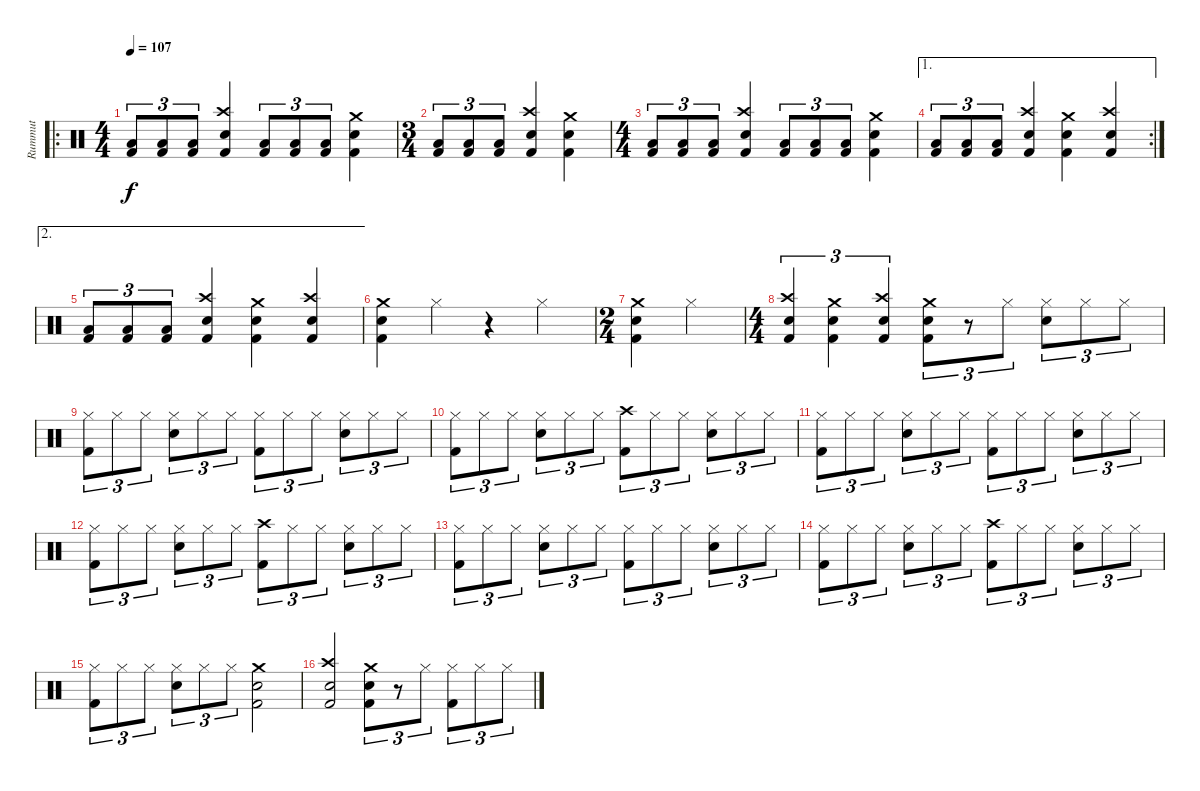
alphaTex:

\track ("Rummut" "Rummut") {instrument percussion}
\staff {score}
\articulation defaults
\ro
\ts (4 4)
\tempo 107
\clef neutral
\ks c
("Low Floor Tom (hit)" "Kick (hit) 2").8{tu (3 2) dy f} ("Low Floor Tom (hit)" "Kick (hit) 2").8{tu (3 2)} ("Low Floor Tom (hit)" "Kick (hit) 2").8{tu (3 2)} ("Crash high (hit)" "Snare (hit) 2" "Kick (hit) 2").4 ("Low Floor Tom (hit)" "Kick (hit) 2").8{tu (3 2)} ("Low Floor Tom (hit)" "Kick (hit) 2").8{tu (3 2)} ("Low Floor Tom (hit)" "Kick (hit) 2").8{tu (3 2)} ("Crash medium (hit)" "Snare (hit) 2" "Kick (hit) 2").4 |
\ts (3 4)
("Low Floor Tom (hit)" "Kick (hit) 2").8{tu (3 2)} ("Low Floor Tom (hit)" "Kick (hit) 2").8{tu (3 2)} ("Low Floor Tom (hit)" "Kick (hit) 2").8{tu (3 2)} ("Crash high (hit)" "Snare (hit) 2" "Kick (hit) 2").4 ("Crash medium (hit)" "Snare (hit) 2" "Kick (hit) 2").4 |
\ts (4 4)
("Low Floor Tom (hit)" "Kick (hit) 2").8{tu (3 2)} ("Low Floor Tom (hit)" "Kick (hit) 2").8{tu (3 2)} ("Low Floor Tom (hit)" "Kick (hit) 2").8{tu (3 2)} ("Crash high (hit)" "Snare (hit) 2" "Kick (hit) 2").4 ("Low Floor Tom (hit)" "Kick (hit) 2").8{tu (3 2)} ("Low Floor Tom (hit)" "Kick (hit) 2").8{tu (3 2)} ("Low Floor Tom (hit)" "Kick (hit) 2").8{tu (3 2)} ("Crash medium (hit)" "Snare (hit) 2" "Kick (hit) 2").4 |
\ae 1
\rc 2
("Low Floor Tom (hit)" "Kick (hit) 2").8{tu (3 2)} ("Low Floor Tom (hit)" "Kick (hit) 2").8{tu (3 2)} ("Low Floor Tom (hit)" "Kick (hit) 2").8{tu (3 2)} ("Crash high (hit)" "Snare (hit) 2" "Kick (hit) 2").4 ("Crash medium (hit)" "Snare (hit) 2" "Kick (hit) 2").4 ("Crash high (hit)" "Snare (hit) 2" "Kick (hit) 2").4 |
\ae 2
("Low Floor Tom (hit)" "Kick (hit) 2").8{tu (3 2)} ("Low Floor Tom (hit)" "Kick (hit) 2").8{tu (3 2)} ("Low Floor Tom (hit)" "Kick (hit) 2").8{tu (3 2)} ("Crash high (hit)" "Snare (hit) 2" "Kick (hit) 2").4 ("Crash medium (hit)" "Snare (hit) 2" "Kick (hit) 2").4 ("Crash high (hit)" "Snare (hit) 2" "Kick (hit) 2").4 |
("Crash medium (hit)" "Snare (hit) 2" "Kick (hit) 2").4 "Hi-Hat (closed)".4 r.4 "Hi-Hat (closed)".4 |
\ts (2 4)
("Crash medium (hit)" "Snare (hit) 2" "Kick (hit) 2").4 "Hi-Hat (closed)".4 |
\ts (4 4)
("Crash high (hit)" "Snare (hit) 2" "Kick (hit) 2").4{tu (3 2)} ("Crash medium (hit)" "Snare (hit) 2" "Kick (hit) 2").4{tu (3 2)} ("Crash high (hit)" "Snare (hit) 2" "Kick (hit) 2").4{tu (3 2)} ("Crash medium (hit)" "Snare (hit) 2" "Kick (hit) 2").8{tu (3 2)} r.8{tu (3 2)} "Hi-Hat (closed)".8{tu (3 2)} ("Hi-Hat (closed)" "Snare (hit) 2").8{tu (3 2)} "Hi-Hat (closed)".8{tu (3 2)} "Hi-Hat (closed)".8{tu (3 2)} |
("Hi-Hat (closed)" "Kick (hit) 2").8{tu (3 2)} "Hi-Hat (closed)".8{tu (3 2)} "Hi-Hat (closed)".8{tu (3 2)} ("Hi-Hat (closed)" "Snare (hit) 2").8{tu (3 2)} "Hi-Hat (closed)".8{tu (3 2)} "Hi-Hat (closed)".8{tu (3 2)} ("Hi-Hat (closed)" "Kick (hit) 2").8{tu (3 2)} "Hi-Hat (closed)".8{tu (3 2)} "Hi-Hat (closed)".8{tu (3 2)} ("Hi-Hat (closed)" "Snare (hit) 2").8{tu (3 2)} "Hi-Hat (closed)".8{tu (3 2)} "Hi-Hat (closed)".8{tu (3 2)} |
("Hi-Hat (closed)" "Kick (hit) 2").8{tu (3 2)} "Hi-Hat (closed)".8{tu (3 2)} "Hi-Hat (closed)".8{tu (3 2)} ("Hi-Hat (closed)" "Snare (hit) 2").8{tu (3 2)} "Hi-Hat (closed)".8{tu (3 2)} "Hi-Hat (closed)".8{tu (3 2)} ("Crash high (hit)" "Kick (hit) 2").8{tu (3 2)} "Hi-Hat (closed)".8{tu (3 2)} "Hi-Hat (closed)".8{tu (3 2)} ("Hi-Hat (closed)" "Snare (hit) 2").8{tu (3 2)} "Hi-Hat (closed)".8{tu (3 2)} "Hi-Hat (closed)".8{tu (3 2)} |
("Hi-Hat (closed)" "Kick (hit) 2").8{tu (3 2)} "Hi-Hat (closed)".8{tu (3 2)} "Hi-Hat (closed)".8{tu (3 2)} ("Hi-Hat (closed)" "Snare (hit) 2").8{tu (3 2)} "Hi-Hat (closed)".8{tu (3 2)} "Hi-Hat (closed)".8{tu (3 2)} ("Hi-Hat (closed)" "Kick (hit) 2").8{tu (3 2)} "Hi-Hat (closed)".8{tu (3 2)} "Hi-Hat (closed)".8{tu (3 2)} ("Hi-Hat (closed)" "Snare (hit) 2").8{tu (3 2)} "Hi-Hat (closed)".8{tu (3 2)} "Hi-Hat (closed)".8{tu (3 2)} |
("Hi-Hat (closed)" "Kick (hit) 2").8{tu (3 2)} "Hi-Hat (closed)".8{tu (3 2)} "Hi-Hat (closed)".8{tu (3 2)} ("Hi-Hat (closed)" "Snare (hit) 2").8{tu (3 2)} "Hi-Hat (closed)".8{tu (3 2)} "Hi-Hat (closed)".8{tu (3 2)} ("Crash high (hit)" "Kick (hit) 2").8{tu (3 2)} "Hi-Hat (closed)".8{tu (3 2)} "Hi-Hat (closed)".8{tu (3 2)} ("Hi-Hat (closed)" "Snare (hit) 2").8{tu (3 2)} "Hi-Hat (closed)".8{tu (3 2)} "Hi-Hat (closed)".8{tu (3 2)} |
("Hi-Hat (closed)" "Kick (hit) 2").8{tu (3 2)} "Hi-Hat (closed)".8{tu (3 2)} "Hi-Hat (closed)".8{tu (3 2)} ("Hi-Hat (closed)" "Snare (hit) 2").8{tu (3 2)} "Hi-Hat (closed)".8{tu (3 2)} "Hi-Hat (closed)".8{tu (3 2)} ("Hi-Hat (closed)" "Kick (hit) 2").8{tu (3 2)} "Hi-Hat (closed)".8{tu (3 2)} "Hi-Hat (closed)".8{tu (3 2)} ("Hi-Hat (closed)" "Snare (hit) 2").8{tu (3 2)} "Hi-Hat (closed)".8{tu (3 2)} "Hi-Hat (closed)".8{tu (3 2)} |
("Hi-Hat (closed)" "Kick (hit) 2").8{tu (3 2)} "Hi-Hat (closed)".8{tu (3 2)} "Hi-Hat (closed)".8{tu (3 2)} ("Hi-Hat (closed)" "Snare (hit) 2").8{tu (3 2)} "Hi-Hat (closed)".8{tu (3 2)} "Hi-Hat (closed)".8{tu (3 2)} ("Crash high (hit)" "Kick (hit) 2").8{tu (3 2)} "Hi-Hat (closed)".8{tu (3 2)} "Hi-Hat (closed)".8{tu (3 2)} ("Hi-Hat (closed)" "Snare (hit) 2").8{tu (3 2)} "Hi-Hat (closed)".8{tu (3 2)} "Hi-Hat (closed)".8{tu (3 2)} |
("Hi-Hat (closed)" "Kick (hit) 2").8{tu (3 2)} "Hi-Hat (closed)".8{tu (3 2)} "Hi-Hat (closed)".8{tu (3 2)} ("Hi-Hat (closed)" "Snare (hit) 2").8{tu (3 2)} "Hi-Hat (closed)".8{tu (3 2)} "Hi-Hat (closed)".8{tu (3 2)} ("Crash medium (hit)" "Snare (hit) 2" "Kick (hit) 2").2 |
("Crash high (hit)" "Snare (hit) 2" "Kick (hit) 2").2 ("Crash medium (hit)" "Snare (hit) 2" "Kick (hit) 2").8{tu (3 2)} r.8{tu (3 2)} "Hi-Hat (closed)".8{tu (3 2)} ("Hi-Hat (closed)" "Kick (hit) 2").8{tu (3 2)} "Hi-Hat (closed)".8{tu (3 2)} "Hi-Hat (closed)".8{tu (3 2)}
